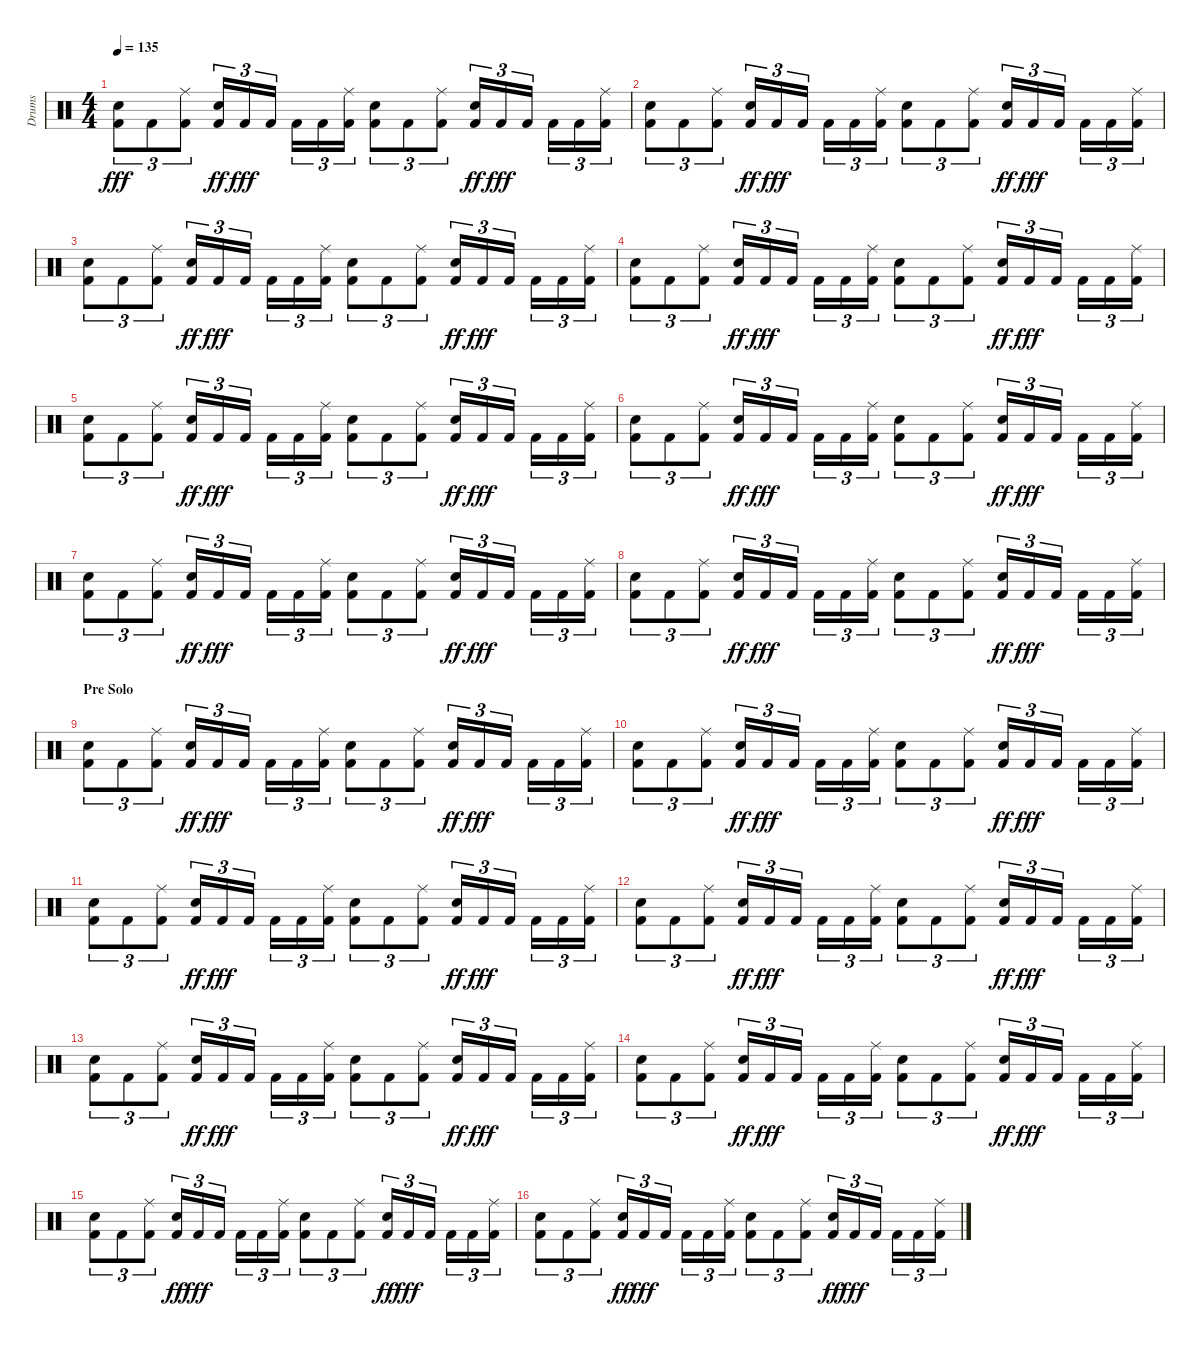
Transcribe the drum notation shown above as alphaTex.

\track ("Drums" "Drums") {instrument percussion}
\staff {score}
\articulation defaults
\ts (4 4)
\tempo 135
\clef neutral
\ks c
("Electric Snare (hit)" "Kick (hit) 2").8{tu (3 2) dy fff} "Kick (hit) 2".8{tu (3 2)} ("Kick (hit) 2" "Ride (middle)").8{tu (3 2)} ("Kick (hit) 2" "Electric Snare (hit)").16{tu (3 2) dy ff} "Kick (hit) 2".16{tu (3 2) dy fff} "Kick (hit) 2".16{tu (3 2)} "Kick (hit) 2".16{tu (3 2)} "Kick (hit) 2".16{tu (3 2)} ("Kick (hit) 2" "Ride (middle)").16{tu (3 2)} ("Electric Snare (hit)" "Kick (hit) 2").8{tu (3 2)} "Kick (hit) 2".8{tu (3 2)} ("Kick (hit) 2" "Ride (middle)").8{tu (3 2)} ("Kick (hit) 2" "Electric Snare (hit)").16{tu (3 2) dy ff} "Kick (hit) 2".16{tu (3 2) dy fff} "Kick (hit) 2".16{tu (3 2)} "Kick (hit) 2".16{tu (3 2)} "Kick (hit) 2".16{tu (3 2)} ("Kick (hit) 2" "Ride (middle)").16{tu (3 2)} |
("Electric Snare (hit)" "Kick (hit) 2").8{tu (3 2)} "Kick (hit) 2".8{tu (3 2)} ("Kick (hit) 2" "Ride (middle)").8{tu (3 2)} ("Kick (hit) 2" "Electric Snare (hit)").16{tu (3 2) dy ff} "Kick (hit) 2".16{tu (3 2) dy fff} "Kick (hit) 2".16{tu (3 2)} "Kick (hit) 2".16{tu (3 2)} "Kick (hit) 2".16{tu (3 2)} ("Kick (hit) 2" "Ride (middle)").16{tu (3 2)} ("Electric Snare (hit)" "Kick (hit) 2").8{tu (3 2)} "Kick (hit) 2".8{tu (3 2)} ("Kick (hit) 2" "Ride (middle)").8{tu (3 2)} ("Kick (hit) 2" "Electric Snare (hit)").16{tu (3 2) dy ff} "Kick (hit) 2".16{tu (3 2) dy fff} "Kick (hit) 2".16{tu (3 2)} "Kick (hit) 2".16{tu (3 2)} "Kick (hit) 2".16{tu (3 2)} ("Kick (hit) 2" "Ride (middle)").16{tu (3 2)} |
("Electric Snare (hit)" "Kick (hit) 2").8{tu (3 2)} "Kick (hit) 2".8{tu (3 2)} ("Kick (hit) 2" "Ride (middle)").8{tu (3 2)} ("Kick (hit) 2" "Electric Snare (hit)").16{tu (3 2) dy ff} "Kick (hit) 2".16{tu (3 2) dy fff} "Kick (hit) 2".16{tu (3 2)} "Kick (hit) 2".16{tu (3 2)} "Kick (hit) 2".16{tu (3 2)} ("Kick (hit) 2" "Ride (middle)").16{tu (3 2)} ("Electric Snare (hit)" "Kick (hit) 2").8{tu (3 2)} "Kick (hit) 2".8{tu (3 2)} ("Kick (hit) 2" "Ride (middle)").8{tu (3 2)} ("Kick (hit) 2" "Electric Snare (hit)").16{tu (3 2) dy ff} "Kick (hit) 2".16{tu (3 2) dy fff} "Kick (hit) 2".16{tu (3 2)} "Kick (hit) 2".16{tu (3 2)} "Kick (hit) 2".16{tu (3 2)} ("Kick (hit) 2" "Ride (middle)").16{tu (3 2)} |
("Electric Snare (hit)" "Kick (hit) 2").8{tu (3 2)} "Kick (hit) 2".8{tu (3 2)} ("Kick (hit) 2" "Ride (middle)").8{tu (3 2)} ("Kick (hit) 2" "Electric Snare (hit)").16{tu (3 2) dy ff} "Kick (hit) 2".16{tu (3 2) dy fff} "Kick (hit) 2".16{tu (3 2)} "Kick (hit) 2".16{tu (3 2)} "Kick (hit) 2".16{tu (3 2)} ("Kick (hit) 2" "Ride (middle)").16{tu (3 2)} ("Electric Snare (hit)" "Kick (hit) 2").8{tu (3 2)} "Kick (hit) 2".8{tu (3 2)} ("Kick (hit) 2" "Ride (middle)").8{tu (3 2)} ("Kick (hit) 2" "Electric Snare (hit)").16{tu (3 2) dy ff} "Kick (hit) 2".16{tu (3 2) dy fff} "Kick (hit) 2".16{tu (3 2)} "Kick (hit) 2".16{tu (3 2)} "Kick (hit) 2".16{tu (3 2)} ("Kick (hit) 2" "Ride (middle)").16{tu (3 2)} |
("Electric Snare (hit)" "Kick (hit) 2").8{tu (3 2)} "Kick (hit) 2".8{tu (3 2)} ("Kick (hit) 2" "Ride (middle)").8{tu (3 2)} ("Kick (hit) 2" "Electric Snare (hit)").16{tu (3 2) dy ff} "Kick (hit) 2".16{tu (3 2) dy fff} "Kick (hit) 2".16{tu (3 2)} "Kick (hit) 2".16{tu (3 2)} "Kick (hit) 2".16{tu (3 2)} ("Kick (hit) 2" "Ride (middle)").16{tu (3 2)} ("Electric Snare (hit)" "Kick (hit) 2").8{tu (3 2)} "Kick (hit) 2".8{tu (3 2)} ("Kick (hit) 2" "Ride (middle)").8{tu (3 2)} ("Kick (hit) 2" "Electric Snare (hit)").16{tu (3 2) dy ff} "Kick (hit) 2".16{tu (3 2) dy fff} "Kick (hit) 2".16{tu (3 2)} "Kick (hit) 2".16{tu (3 2)} "Kick (hit) 2".16{tu (3 2)} ("Kick (hit) 2" "Ride (middle)").16{tu (3 2)} |
("Electric Snare (hit)" "Kick (hit) 2").8{tu (3 2)} "Kick (hit) 2".8{tu (3 2)} ("Kick (hit) 2" "Ride (middle)").8{tu (3 2)} ("Kick (hit) 2" "Electric Snare (hit)").16{tu (3 2) dy ff} "Kick (hit) 2".16{tu (3 2) dy fff} "Kick (hit) 2".16{tu (3 2)} "Kick (hit) 2".16{tu (3 2)} "Kick (hit) 2".16{tu (3 2)} ("Kick (hit) 2" "Ride (middle)").16{tu (3 2)} ("Electric Snare (hit)" "Kick (hit) 2").8{tu (3 2)} "Kick (hit) 2".8{tu (3 2)} ("Kick (hit) 2" "Ride (middle)").8{tu (3 2)} ("Kick (hit) 2" "Electric Snare (hit)").16{tu (3 2) dy ff} "Kick (hit) 2".16{tu (3 2) dy fff} "Kick (hit) 2".16{tu (3 2)} "Kick (hit) 2".16{tu (3 2)} "Kick (hit) 2".16{tu (3 2)} ("Kick (hit) 2" "Ride (middle)").16{tu (3 2)} |
("Electric Snare (hit)" "Kick (hit) 2").8{tu (3 2)} "Kick (hit) 2".8{tu (3 2)} ("Kick (hit) 2" "Ride (middle)").8{tu (3 2)} ("Kick (hit) 2" "Electric Snare (hit)").16{tu (3 2) dy ff} "Kick (hit) 2".16{tu (3 2) dy fff} "Kick (hit) 2".16{tu (3 2)} "Kick (hit) 2".16{tu (3 2)} "Kick (hit) 2".16{tu (3 2)} ("Kick (hit) 2" "Ride (middle)").16{tu (3 2)} ("Electric Snare (hit)" "Kick (hit) 2").8{tu (3 2)} "Kick (hit) 2".8{tu (3 2)} ("Kick (hit) 2" "Ride (middle)").8{tu (3 2)} ("Kick (hit) 2" "Electric Snare (hit)").16{tu (3 2) dy ff} "Kick (hit) 2".16{tu (3 2) dy fff} "Kick (hit) 2".16{tu (3 2)} "Kick (hit) 2".16{tu (3 2)} "Kick (hit) 2".16{tu (3 2)} ("Kick (hit) 2" "Ride (middle)").16{tu (3 2)} |
("Electric Snare (hit)" "Kick (hit) 2").8{tu (3 2)} "Kick (hit) 2".8{tu (3 2)} ("Kick (hit) 2" "Ride (middle)").8{tu (3 2)} ("Kick (hit) 2" "Electric Snare (hit)").16{tu (3 2) dy ff} "Kick (hit) 2".16{tu (3 2) dy fff} "Kick (hit) 2".16{tu (3 2)} "Kick (hit) 2".16{tu (3 2)} "Kick (hit) 2".16{tu (3 2)} ("Kick (hit) 2" "Ride (middle)").16{tu (3 2)} ("Electric Snare (hit)" "Kick (hit) 2").8{tu (3 2)} "Kick (hit) 2".8{tu (3 2)} ("Kick (hit) 2" "Ride (middle)").8{tu (3 2)} ("Kick (hit) 2" "Electric Snare (hit)").16{tu (3 2) dy ff} "Kick (hit) 2".16{tu (3 2) dy fff} "Kick (hit) 2".16{tu (3 2)} "Kick (hit) 2".16{tu (3 2)} "Kick (hit) 2".16{tu (3 2)} ("Kick (hit) 2" "Ride (middle)").16{tu (3 2)} |
\section ("" "Pre Solo")
("Electric Snare (hit)" "Kick (hit) 2").8{tu (3 2)} "Kick (hit) 2".8{tu (3 2)} ("Kick (hit) 2" "Ride (middle)").8{tu (3 2)} ("Kick (hit) 2" "Electric Snare (hit)").16{tu (3 2) dy ff} "Kick (hit) 2".16{tu (3 2) dy fff} "Kick (hit) 2".16{tu (3 2)} "Kick (hit) 2".16{tu (3 2)} "Kick (hit) 2".16{tu (3 2)} ("Kick (hit) 2" "Ride (middle)").16{tu (3 2)} ("Electric Snare (hit)" "Kick (hit) 2").8{tu (3 2)} "Kick (hit) 2".8{tu (3 2)} ("Kick (hit) 2" "Ride (middle)").8{tu (3 2)} ("Kick (hit) 2" "Electric Snare (hit)").16{tu (3 2) dy ff} "Kick (hit) 2".16{tu (3 2) dy fff} "Kick (hit) 2".16{tu (3 2)} "Kick (hit) 2".16{tu (3 2)} "Kick (hit) 2".16{tu (3 2)} ("Kick (hit) 2" "Ride (middle)").16{tu (3 2)} |
("Electric Snare (hit)" "Kick (hit) 2").8{tu (3 2)} "Kick (hit) 2".8{tu (3 2)} ("Kick (hit) 2" "Ride (middle)").8{tu (3 2)} ("Kick (hit) 2" "Electric Snare (hit)").16{tu (3 2) dy ff} "Kick (hit) 2".16{tu (3 2) dy fff} "Kick (hit) 2".16{tu (3 2)} "Kick (hit) 2".16{tu (3 2)} "Kick (hit) 2".16{tu (3 2)} ("Kick (hit) 2" "Ride (middle)").16{tu (3 2)} ("Electric Snare (hit)" "Kick (hit) 2").8{tu (3 2)} "Kick (hit) 2".8{tu (3 2)} ("Kick (hit) 2" "Ride (middle)").8{tu (3 2)} ("Kick (hit) 2" "Electric Snare (hit)").16{tu (3 2) dy ff} "Kick (hit) 2".16{tu (3 2) dy fff} "Kick (hit) 2".16{tu (3 2)} "Kick (hit) 2".16{tu (3 2)} "Kick (hit) 2".16{tu (3 2)} ("Kick (hit) 2" "Ride (middle)").16{tu (3 2)} |
("Electric Snare (hit)" "Kick (hit) 2").8{tu (3 2)} "Kick (hit) 2".8{tu (3 2)} ("Kick (hit) 2" "Ride (middle)").8{tu (3 2)} ("Kick (hit) 2" "Electric Snare (hit)").16{tu (3 2) dy ff} "Kick (hit) 2".16{tu (3 2) dy fff} "Kick (hit) 2".16{tu (3 2)} "Kick (hit) 2".16{tu (3 2)} "Kick (hit) 2".16{tu (3 2)} ("Kick (hit) 2" "Ride (middle)").16{tu (3 2)} ("Electric Snare (hit)" "Kick (hit) 2").8{tu (3 2)} "Kick (hit) 2".8{tu (3 2)} ("Kick (hit) 2" "Ride (middle)").8{tu (3 2)} ("Kick (hit) 2" "Electric Snare (hit)").16{tu (3 2) dy ff} "Kick (hit) 2".16{tu (3 2) dy fff} "Kick (hit) 2".16{tu (3 2)} "Kick (hit) 2".16{tu (3 2)} "Kick (hit) 2".16{tu (3 2)} ("Kick (hit) 2" "Ride (middle)").16{tu (3 2)} |
("Electric Snare (hit)" "Kick (hit) 2").8{tu (3 2)} "Kick (hit) 2".8{tu (3 2)} ("Kick (hit) 2" "Ride (middle)").8{tu (3 2)} ("Kick (hit) 2" "Electric Snare (hit)").16{tu (3 2) dy ff} "Kick (hit) 2".16{tu (3 2) dy fff} "Kick (hit) 2".16{tu (3 2)} "Kick (hit) 2".16{tu (3 2)} "Kick (hit) 2".16{tu (3 2)} ("Kick (hit) 2" "Ride (middle)").16{tu (3 2)} ("Electric Snare (hit)" "Kick (hit) 2").8{tu (3 2)} "Kick (hit) 2".8{tu (3 2)} ("Kick (hit) 2" "Ride (middle)").8{tu (3 2)} ("Kick (hit) 2" "Electric Snare (hit)").16{tu (3 2) dy ff} "Kick (hit) 2".16{tu (3 2) dy fff} "Kick (hit) 2".16{tu (3 2)} "Kick (hit) 2".16{tu (3 2)} "Kick (hit) 2".16{tu (3 2)} ("Kick (hit) 2" "Ride (middle)").16{tu (3 2)} |
("Electric Snare (hit)" "Kick (hit) 2").8{tu (3 2)} "Kick (hit) 2".8{tu (3 2)} ("Kick (hit) 2" "Ride (middle)").8{tu (3 2)} ("Kick (hit) 2" "Electric Snare (hit)").16{tu (3 2) dy ff} "Kick (hit) 2".16{tu (3 2) dy fff} "Kick (hit) 2".16{tu (3 2)} "Kick (hit) 2".16{tu (3 2)} "Kick (hit) 2".16{tu (3 2)} ("Kick (hit) 2" "Ride (middle)").16{tu (3 2)} ("Electric Snare (hit)" "Kick (hit) 2").8{tu (3 2)} "Kick (hit) 2".8{tu (3 2)} ("Kick (hit) 2" "Ride (middle)").8{tu (3 2)} ("Kick (hit) 2" "Electric Snare (hit)").16{tu (3 2) dy ff} "Kick (hit) 2".16{tu (3 2) dy fff} "Kick (hit) 2".16{tu (3 2)} "Kick (hit) 2".16{tu (3 2)} "Kick (hit) 2".16{tu (3 2)} ("Kick (hit) 2" "Ride (middle)").16{tu (3 2)} |
("Electric Snare (hit)" "Kick (hit) 2").8{tu (3 2)} "Kick (hit) 2".8{tu (3 2)} ("Kick (hit) 2" "Ride (middle)").8{tu (3 2)} ("Kick (hit) 2" "Electric Snare (hit)").16{tu (3 2) dy ff} "Kick (hit) 2".16{tu (3 2) dy fff} "Kick (hit) 2".16{tu (3 2)} "Kick (hit) 2".16{tu (3 2)} "Kick (hit) 2".16{tu (3 2)} ("Kick (hit) 2" "Ride (middle)").16{tu (3 2)} ("Electric Snare (hit)" "Kick (hit) 2").8{tu (3 2)} "Kick (hit) 2".8{tu (3 2)} ("Kick (hit) 2" "Ride (middle)").8{tu (3 2)} ("Kick (hit) 2" "Electric Snare (hit)").16{tu (3 2) dy ff} "Kick (hit) 2".16{tu (3 2) dy fff} "Kick (hit) 2".16{tu (3 2)} "Kick (hit) 2".16{tu (3 2)} "Kick (hit) 2".16{tu (3 2)} ("Kick (hit) 2" "Ride (middle)").16{tu (3 2)} |
("Electric Snare (hit)" "Kick (hit) 2").8{tu (3 2)} "Kick (hit) 2".8{tu (3 2)} ("Kick (hit) 2" "Ride (middle)").8{tu (3 2)} ("Kick (hit) 2" "Electric Snare (hit)").16{tu (3 2) dy ff} "Kick (hit) 2".16{tu (3 2) dy fff} "Kick (hit) 2".16{tu (3 2)} "Kick (hit) 2".16{tu (3 2)} "Kick (hit) 2".16{tu (3 2)} ("Kick (hit) 2" "Ride (middle)").16{tu (3 2)} ("Electric Snare (hit)" "Kick (hit) 2").8{tu (3 2)} "Kick (hit) 2".8{tu (3 2)} ("Kick (hit) 2" "Ride (middle)").8{tu (3 2)} ("Kick (hit) 2" "Electric Snare (hit)").16{tu (3 2) dy ff} "Kick (hit) 2".16{tu (3 2) dy fff} "Kick (hit) 2".16{tu (3 2)} "Kick (hit) 2".16{tu (3 2)} "Kick (hit) 2".16{tu (3 2)} ("Kick (hit) 2" "Ride (middle)").16{tu (3 2)} |
("Electric Snare (hit)" "Kick (hit) 2").8{tu (3 2)} "Kick (hit) 2".8{tu (3 2)} ("Kick (hit) 2" "Ride (middle)").8{tu (3 2)} ("Kick (hit) 2" "Electric Snare (hit)").16{tu (3 2) dy ff} "Kick (hit) 2".16{tu (3 2) dy fff} "Kick (hit) 2".16{tu (3 2)} "Kick (hit) 2".16{tu (3 2)} "Kick (hit) 2".16{tu (3 2)} ("Kick (hit) 2" "Ride (middle)").16{tu (3 2)} ("Electric Snare (hit)" "Kick (hit) 2").8{tu (3 2)} "Kick (hit) 2".8{tu (3 2)} ("Kick (hit) 2" "Ride (middle)").8{tu (3 2)} ("Kick (hit) 2" "Electric Snare (hit)").16{tu (3 2) dy ff} "Kick (hit) 2".16{tu (3 2) dy fff} "Kick (hit) 2".16{tu (3 2)} "Kick (hit) 2".16{tu (3 2)} "Kick (hit) 2".16{tu (3 2)} ("Kick (hit) 2" "Ride (middle)").16{tu (3 2)}
